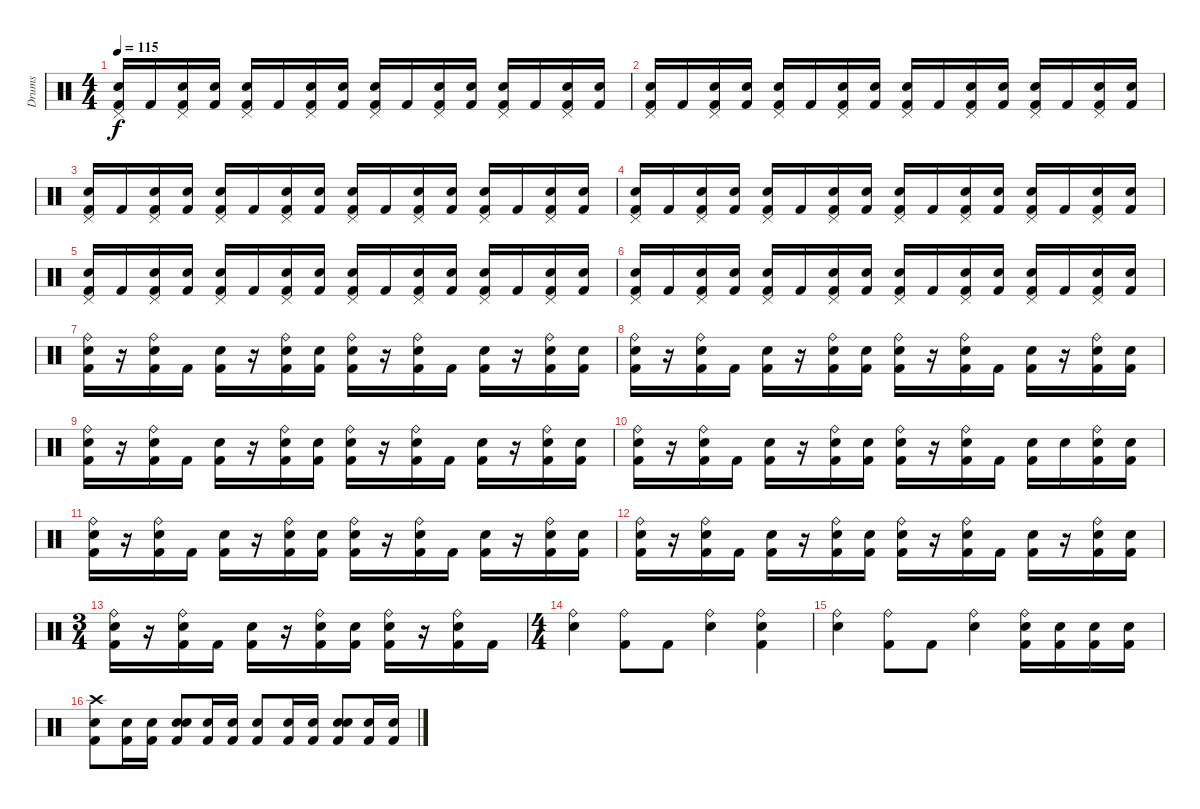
\track ("Drums" "Drums") {instrument percussion}
\staff {score}
\articulation defaults
\ts (4 4)
\tempo 115
\clef neutral
\ks c
("Pedal Hi-Hat (hit)" "Kick (hit) 2" "Snare (hit) 2").16{dy f} "Kick (hit) 2".16 ("Pedal Hi-Hat (hit)" "Kick (hit) 2" "Snare (hit) 2").16 ("Kick (hit) 2" "Snare (hit) 2").16 ("Pedal Hi-Hat (hit)" "Electric Snare (hit)" "Kick (hit) 2").16 "Kick (hit) 2".16 ("Pedal Hi-Hat (hit)" "Kick (hit) 2" "Snare (hit) 2").16 ("Kick (hit) 2" "Snare (hit) 2").16 ("Pedal Hi-Hat (hit)" "Kick (hit) 2" "Snare (hit) 2").16 "Kick (hit) 2".16 ("Pedal Hi-Hat (hit)" "Kick (hit) 2" "Snare (hit) 2").16 ("Kick (hit) 2" "Snare (hit) 2").16 ("Pedal Hi-Hat (hit)" "Electric Snare (hit)" "Kick (hit) 2").16 "Kick (hit) 2".16 ("Pedal Hi-Hat (hit)" "Kick (hit) 2" "Snare (hit) 2").16 ("Kick (hit) 2" "Snare (hit) 2").16 |
("Pedal Hi-Hat (hit)" "Kick (hit) 2" "Snare (hit) 2").16 "Kick (hit) 2".16 ("Pedal Hi-Hat (hit)" "Kick (hit) 2" "Snare (hit) 2").16 ("Kick (hit) 2" "Snare (hit) 2").16 ("Pedal Hi-Hat (hit)" "Electric Snare (hit)" "Kick (hit) 2").16 "Kick (hit) 2".16 ("Pedal Hi-Hat (hit)" "Kick (hit) 2" "Snare (hit) 2").16 ("Kick (hit) 2" "Snare (hit) 2").16 ("Pedal Hi-Hat (hit)" "Kick (hit) 2" "Snare (hit) 2").16 "Kick (hit) 2".16 ("Pedal Hi-Hat (hit)" "Kick (hit) 2" "Snare (hit) 2").16 ("Kick (hit) 2" "Snare (hit) 2").16 ("Pedal Hi-Hat (hit)" "Electric Snare (hit)" "Kick (hit) 2").16 "Kick (hit) 2".16 ("Pedal Hi-Hat (hit)" "Kick (hit) 2" "Snare (hit) 2").16 ("Kick (hit) 2" "Snare (hit) 2").16 |
("Pedal Hi-Hat (hit)" "Kick (hit) 2" "Snare (hit) 2").16 "Kick (hit) 2".16 ("Pedal Hi-Hat (hit)" "Kick (hit) 2" "Snare (hit) 2").16 ("Kick (hit) 2" "Snare (hit) 2").16 ("Pedal Hi-Hat (hit)" "Electric Snare (hit)" "Kick (hit) 2").16 "Kick (hit) 2".16 ("Pedal Hi-Hat (hit)" "Kick (hit) 2" "Snare (hit) 2").16 ("Kick (hit) 2" "Snare (hit) 2").16 ("Pedal Hi-Hat (hit)" "Kick (hit) 2" "Snare (hit) 2").16 "Kick (hit) 2".16 ("Pedal Hi-Hat (hit)" "Kick (hit) 2" "Snare (hit) 2").16 ("Kick (hit) 2" "Snare (hit) 2").16 ("Pedal Hi-Hat (hit)" "Electric Snare (hit)" "Kick (hit) 2").16 "Kick (hit) 2".16 ("Pedal Hi-Hat (hit)" "Kick (hit) 2" "Snare (hit) 2").16 ("Kick (hit) 2" "Snare (hit) 2").16 |
("Pedal Hi-Hat (hit)" "Kick (hit) 2" "Snare (hit) 2").16 "Kick (hit) 2".16 ("Pedal Hi-Hat (hit)" "Kick (hit) 2" "Snare (hit) 2").16 ("Kick (hit) 2" "Snare (hit) 2").16 ("Pedal Hi-Hat (hit)" "Electric Snare (hit)" "Kick (hit) 2").16 "Kick (hit) 2".16 ("Pedal Hi-Hat (hit)" "Kick (hit) 2" "Snare (hit) 2").16 ("Kick (hit) 2" "Snare (hit) 2").16 ("Pedal Hi-Hat (hit)" "Kick (hit) 2" "Snare (hit) 2").16 "Kick (hit) 2".16 ("Pedal Hi-Hat (hit)" "Kick (hit) 2" "Snare (hit) 2").16 ("Kick (hit) 2" "Snare (hit) 2").16 ("Pedal Hi-Hat (hit)" "Electric Snare (hit)" "Kick (hit) 2").16 "Kick (hit) 2".16 ("Pedal Hi-Hat (hit)" "Kick (hit) 2" "Snare (hit) 2").16 ("Kick (hit) 2" "Snare (hit) 2").16 |
("Pedal Hi-Hat (hit)" "Kick (hit) 2" "Snare (hit) 2").16 "Kick (hit) 2".16 ("Pedal Hi-Hat (hit)" "Kick (hit) 2" "Snare (hit) 2").16 ("Kick (hit) 2" "Snare (hit) 2").16 ("Pedal Hi-Hat (hit)" "Electric Snare (hit)" "Kick (hit) 2").16 "Kick (hit) 2".16 ("Pedal Hi-Hat (hit)" "Kick (hit) 2" "Snare (hit) 2").16 ("Kick (hit) 2" "Snare (hit) 2").16 ("Pedal Hi-Hat (hit)" "Kick (hit) 2" "Snare (hit) 2").16 "Kick (hit) 2".16 ("Pedal Hi-Hat (hit)" "Kick (hit) 2" "Snare (hit) 2").16 ("Kick (hit) 2" "Snare (hit) 2").16 ("Pedal Hi-Hat (hit)" "Electric Snare (hit)" "Kick (hit) 2").16 "Kick (hit) 2".16 ("Pedal Hi-Hat (hit)" "Kick (hit) 2" "Snare (hit) 2").16 ("Kick (hit) 2" "Snare (hit) 2").16 |
("Pedal Hi-Hat (hit)" "Kick (hit) 2" "Snare (hit) 2").16 "Kick (hit) 2".16 ("Pedal Hi-Hat (hit)" "Kick (hit) 2" "Snare (hit) 2").16 ("Kick (hit) 2" "Snare (hit) 2").16 ("Pedal Hi-Hat (hit)" "Electric Snare (hit)" "Kick (hit) 2").16 "Kick (hit) 2".16 ("Pedal Hi-Hat (hit)" "Kick (hit) 2" "Snare (hit) 2").16 ("Kick (hit) 2" "Snare (hit) 2").16 ("Pedal Hi-Hat (hit)" "Kick (hit) 2" "Snare (hit) 2").16 "Kick (hit) 2".16 ("Pedal Hi-Hat (hit)" "Kick (hit) 2" "Snare (hit) 2").16 ("Kick (hit) 2" "Snare (hit) 2").16 ("Pedal Hi-Hat (hit)" "Electric Snare (hit)" "Kick (hit) 2").16 "Kick (hit) 2".16 ("Pedal Hi-Hat (hit)" "Kick (hit) 2" "Snare (hit) 2").16 ("Kick (hit) 2" "Snare (hit) 2").16 |
("Ride (bell)" "Snare (hit) 2" "Kick (hit) 2").16 r.16 ("Ride (bell)" "Snare (hit) 2" "Kick (hit) 2").16 "Kick (hit) 2".16 ("Electric Snare (hit)" "Kick (hit) 2").16 r.16 ("Ride (bell)" "Snare (hit) 2" "Kick (hit) 2").16 ("Snare (hit) 2" "Kick (hit) 2").16 ("Ride (bell)" "Snare (hit) 2" "Kick (hit) 2").16 r.16 ("Ride (bell)" "Snare (hit) 2" "Kick (hit) 2").16 "Kick (hit) 2".16 ("Electric Snare (hit)" "Kick (hit) 2").16 r.16 ("Ride (bell)" "Snare (hit) 2" "Kick (hit) 2").16 ("Snare (hit) 2" "Kick (hit) 2").16 |
("Ride (bell)" "Snare (hit) 2" "Kick (hit) 2").16 r.16 ("Ride (bell)" "Snare (hit) 2" "Kick (hit) 2").16 "Kick (hit) 2".16 ("Electric Snare (hit)" "Kick (hit) 2").16 r.16 ("Ride (bell)" "Snare (hit) 2" "Kick (hit) 2").16 ("Snare (hit) 2" "Kick (hit) 2").16 ("Ride (bell)" "Snare (hit) 2" "Kick (hit) 2").16 r.16 ("Ride (bell)" "Snare (hit) 2" "Kick (hit) 2").16 "Kick (hit) 2".16 ("Electric Snare (hit)" "Kick (hit) 2").16 r.16 ("Ride (bell)" "Snare (hit) 2" "Kick (hit) 2").16 ("Snare (hit) 2" "Kick (hit) 2").16 |
("Ride (bell)" "Snare (hit) 2" "Kick (hit) 2").16 r.16 ("Ride (bell)" "Snare (hit) 2" "Kick (hit) 2").16 "Kick (hit) 2".16 ("Electric Snare (hit)" "Kick (hit) 2").16 r.16 ("Ride (bell)" "Snare (hit) 2" "Kick (hit) 2").16 ("Snare (hit) 2" "Kick (hit) 2").16 ("Ride (bell)" "Snare (hit) 2" "Kick (hit) 2").16 r.16 ("Ride (bell)" "Snare (hit) 2" "Kick (hit) 2").16 "Kick (hit) 2".16 ("Electric Snare (hit)" "Kick (hit) 2").16 r.16 ("Ride (bell)" "Snare (hit) 2" "Kick (hit) 2").16 ("Snare (hit) 2" "Kick (hit) 2").16 |
("Ride (bell)" "Snare (hit) 2" "Kick (hit) 2").16 r.16 ("Ride (bell)" "Snare (hit) 2" "Kick (hit) 2").16 "Kick (hit) 2".16 ("Electric Snare (hit)" "Kick (hit) 2").16 r.16 ("Ride (bell)" "Snare (hit) 2" "Kick (hit) 2").16 ("Snare (hit) 2" "Kick (hit) 2").16 ("Ride (bell)" "Snare (hit) 2" "Kick (hit) 2").16 r.16 ("Ride (bell)" "Snare (hit) 2" "Kick (hit) 2").16 "Kick (hit) 2".16 ("Electric Snare (hit)" "Kick (hit) 2").16 "Electric Snare (hit)".16 ("Ride (bell)" "Electric Snare (hit)" "Kick (hit) 2").16 ("Electric Snare (hit)" "Kick (hit) 2").16 |
("Ride (bell)" "Snare (hit) 2" "Kick (hit) 2").16 r.16 ("Ride (bell)" "Snare (hit) 2" "Kick (hit) 2").16 "Kick (hit) 2".16 ("Electric Snare (hit)" "Kick (hit) 2").16 r.16 ("Ride (bell)" "Snare (hit) 2" "Kick (hit) 2").16 ("Snare (hit) 2" "Kick (hit) 2").16 ("Ride (bell)" "Snare (hit) 2" "Kick (hit) 2").16 r.16 ("Ride (bell)" "Snare (hit) 2" "Kick (hit) 2").16 "Kick (hit) 2".16 ("Electric Snare (hit)" "Kick (hit) 2").16 r.16 ("Ride (bell)" "Snare (hit) 2" "Kick (hit) 2").16 ("Snare (hit) 2" "Kick (hit) 2").16 |
("Ride (bell)" "Snare (hit) 2" "Kick (hit) 2").16 r.16 ("Ride (bell)" "Snare (hit) 2" "Kick (hit) 2").16 "Kick (hit) 2".16 ("Electric Snare (hit)" "Kick (hit) 2").16 r.16 ("Ride (bell)" "Snare (hit) 2" "Kick (hit) 2").16 ("Snare (hit) 2" "Kick (hit) 2").16 ("Ride (bell)" "Snare (hit) 2" "Kick (hit) 2").16 r.16 ("Ride (bell)" "Snare (hit) 2" "Kick (hit) 2").16 "Kick (hit) 2".16 ("Electric Snare (hit)" "Kick (hit) 2").16 r.16 ("Ride (bell)" "Snare (hit) 2" "Kick (hit) 2").16 ("Snare (hit) 2" "Kick (hit) 2").16 |
\ts (3 4)
("Ride (bell)" "Snare (hit) 2" "Kick (hit) 2").16 r.16 ("Ride (bell)" "Snare (hit) 2" "Kick (hit) 2").16 "Kick (hit) 2".16 ("Electric Snare (hit)" "Kick (hit) 2").16 r.16 ("Ride (bell)" "Snare (hit) 2" "Kick (hit) 2").16 ("Snare (hit) 2" "Kick (hit) 2").16 ("Ride (bell)" "Snare (hit) 2" "Kick (hit) 2").16 r.16 ("Ride (bell)" "Snare (hit) 2" "Kick (hit) 2").16 "Kick (hit) 2".16 |
\ts (4 4)
("Ride (bell)" "Snare (hit) 2").4 ("Ride (bell)" "Kick (hit) 2").8 "Kick (hit) 2".8 ("Ride (bell)" "Electric Snare (hit)").4 ("Ride (bell)" "Kick (hit) 2" "Snare (hit) 2").4 |
("Ride (bell)" "Snare (hit) 2").4 ("Ride (bell)" "Kick (hit) 2").8 "Kick (hit) 2".8 ("Ride (bell)" "Electric Snare (hit)").4 ("Ride (bell)" "Kick (hit) 2" "Snare (hit) 2").16 ("Kick (hit) 2" "Snare (hit) 2").16 ("Kick (hit) 2" "Snare (hit) 2").16 ("Kick (hit) 2" "Snare (hit) 2").16 |
("Crash high (hit)" "Kick (hit) 2" "Snare (hit) 2").8 ("Kick (hit) 2" "Snare (hit) 2").16 ("Kick (hit) 2" "Snare (hit) 2").16 ("Electric Snare (hit)" "Kick (hit) 2" "Snare (hit) 2").8 ("Kick (hit) 2" "Snare (hit) 2").16 ("Kick (hit) 2" "Snare (hit) 2").16 ("Kick (hit) 2" "Snare (hit) 2").8 ("Kick (hit) 2" "Snare (hit) 2").16 ("Kick (hit) 2" "Snare (hit) 2").16 ("Electric Snare (hit)" "Kick (hit) 2" "Snare (hit) 2").8 ("Kick (hit) 2" "Snare (hit) 2").16 ("Kick (hit) 2" "Snare (hit) 2").16
